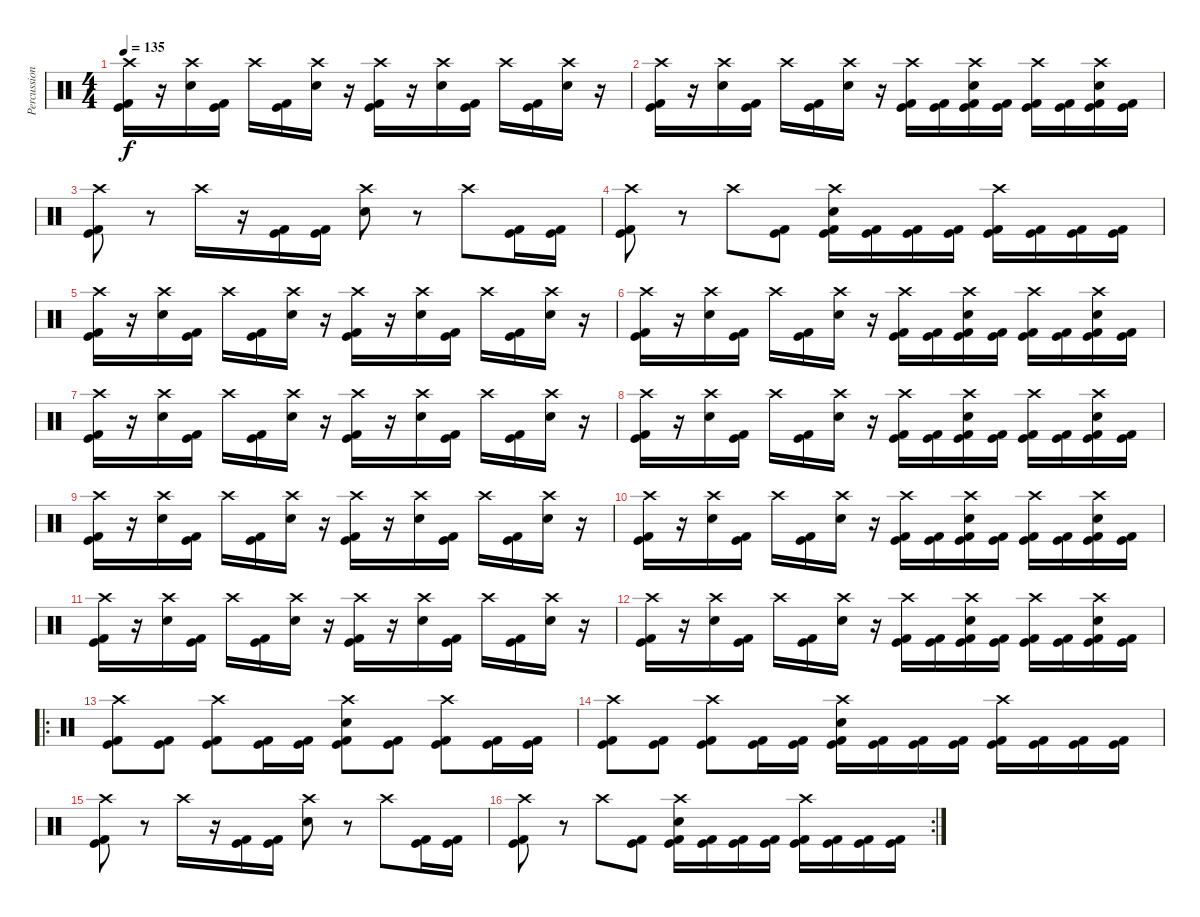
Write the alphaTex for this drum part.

\track ("Percussion" "Percussion") {instrument percussion}
\staff {score}
\articulation defaults
\ts (4 4)
\tempo 135
\clef neutral
\ks c
("Crash high (hit)" "Kick (hit)" "Kick (hit) 2").16{dy f} r.16 ("Crash high (hit)" "Electric Snare (hit)").16 ("Kick (hit) 2" "Kick (hit)").16 "Crash high (hit)".16 ("Kick (hit) 2" "Kick (hit)").16 ("Crash high (hit)" "Electric Snare (hit)").16 r.16 ("Crash high (hit)" "Kick (hit)" "Kick (hit) 2").16 r.16 ("Crash high (hit)" "Electric Snare (hit)").16 ("Kick (hit) 2" "Kick (hit)").16 "Crash high (hit)".16 ("Kick (hit) 2" "Kick (hit)").16 ("Crash high (hit)" "Electric Snare (hit)").16 r.16 |
("Crash high (hit)" "Kick (hit)" "Kick (hit) 2").16 r.16 ("Crash high (hit)" "Electric Snare (hit)").16 ("Kick (hit) 2" "Kick (hit)").16 "Crash high (hit)".16 ("Kick (hit) 2" "Kick (hit)").16 ("Crash high (hit)" "Electric Snare (hit)").16 r.16 ("Crash high (hit)" "Kick (hit) 2" "Kick (hit)").16 ("Kick (hit) 2" "Kick (hit)").16 ("Crash high (hit)" "Electric Snare (hit)" "Kick (hit) 2" "Kick (hit)").16 ("Kick (hit) 2" "Kick (hit)").16 ("Crash high (hit)" "Kick (hit) 2" "Kick (hit)").16 ("Kick (hit) 2" "Kick (hit)").16 ("Crash high (hit)" "Electric Snare (hit)" "Kick (hit) 2" "Kick (hit)").16 ("Kick (hit) 2" "Kick (hit)").16 |
("Crash high (hit)" "Kick (hit)" "Kick (hit) 2").8 r.8 "Crash high (hit)".16 r.16 ("Kick (hit)" "Kick (hit) 2").16 ("Kick (hit)" "Kick (hit) 2").16 ("Crash high (hit)" "Electric Snare (hit)").8 r.8 "Crash high (hit)".8 ("Kick (hit)" "Kick (hit) 2").16 ("Kick (hit)" "Kick (hit) 2").16 |
("Crash high (hit)" "Kick (hit)" "Kick (hit) 2").8 r.8 "Crash high (hit)".8 ("Kick (hit)" "Kick (hit) 2").8 ("Crash high (hit)" "Electric Snare (hit)" "Kick (hit)" "Kick (hit) 2").16 ("Kick (hit)" "Kick (hit) 2").16 ("Kick (hit)" "Kick (hit) 2").16 ("Kick (hit)" "Kick (hit) 2").16 ("Crash high (hit)" "Kick (hit)" "Kick (hit) 2").16 ("Kick (hit)" "Kick (hit) 2").16 ("Kick (hit)" "Kick (hit) 2").16 ("Kick (hit)" "Kick (hit) 2").16 |
("Crash high (hit)" "Kick (hit)" "Kick (hit) 2").16 r.16 ("Crash high (hit)" "Electric Snare (hit)").16 ("Kick (hit) 2" "Kick (hit)").16 "Crash high (hit)".16 ("Kick (hit) 2" "Kick (hit)").16 ("Crash high (hit)" "Electric Snare (hit)").16 r.16 ("Crash high (hit)" "Kick (hit)" "Kick (hit) 2").16 r.16 ("Crash high (hit)" "Electric Snare (hit)").16 ("Kick (hit) 2" "Kick (hit)").16 "Crash high (hit)".16 ("Kick (hit) 2" "Kick (hit)").16 ("Crash high (hit)" "Electric Snare (hit)").16 r.16 |
("Crash high (hit)" "Kick (hit)" "Kick (hit) 2").16 r.16 ("Crash high (hit)" "Electric Snare (hit)").16 ("Kick (hit) 2" "Kick (hit)").16 "Crash high (hit)".16 ("Kick (hit) 2" "Kick (hit)").16 ("Crash high (hit)" "Electric Snare (hit)").16 r.16 ("Crash high (hit)" "Kick (hit) 2" "Kick (hit)").16 ("Kick (hit) 2" "Kick (hit)").16 ("Crash high (hit)" "Electric Snare (hit)" "Kick (hit) 2" "Kick (hit)").16 ("Kick (hit) 2" "Kick (hit)").16 ("Crash high (hit)" "Kick (hit) 2" "Kick (hit)").16 ("Kick (hit) 2" "Kick (hit)").16 ("Crash high (hit)" "Electric Snare (hit)" "Kick (hit) 2" "Kick (hit)").16 ("Kick (hit) 2" "Kick (hit)").16 |
("Crash high (hit)" "Kick (hit)" "Kick (hit) 2").16 r.16 ("Crash high (hit)" "Electric Snare (hit)").16 ("Kick (hit) 2" "Kick (hit)").16 "Crash high (hit)".16 ("Kick (hit) 2" "Kick (hit)").16 ("Crash high (hit)" "Electric Snare (hit)").16 r.16 ("Crash high (hit)" "Kick (hit)" "Kick (hit) 2").16 r.16 ("Crash high (hit)" "Electric Snare (hit)").16 ("Kick (hit) 2" "Kick (hit)").16 "Crash high (hit)".16 ("Kick (hit) 2" "Kick (hit)").16 ("Crash high (hit)" "Electric Snare (hit)").16 r.16 |
("Crash high (hit)" "Kick (hit)" "Kick (hit) 2").16 r.16 ("Crash high (hit)" "Electric Snare (hit)").16 ("Kick (hit) 2" "Kick (hit)").16 "Crash high (hit)".16 ("Kick (hit) 2" "Kick (hit)").16 ("Crash high (hit)" "Electric Snare (hit)").16 r.16 ("Crash high (hit)" "Kick (hit) 2" "Kick (hit)").16 ("Kick (hit) 2" "Kick (hit)").16 ("Crash high (hit)" "Electric Snare (hit)" "Kick (hit) 2" "Kick (hit)").16 ("Kick (hit) 2" "Kick (hit)").16 ("Crash high (hit)" "Kick (hit) 2" "Kick (hit)").16 ("Kick (hit) 2" "Kick (hit)").16 ("Crash high (hit)" "Electric Snare (hit)" "Kick (hit) 2" "Kick (hit)").16 ("Kick (hit) 2" "Kick (hit)").16 |
("Crash high (hit)" "Kick (hit)" "Kick (hit) 2").16 r.16 ("Crash high (hit)" "Electric Snare (hit)").16 ("Kick (hit) 2" "Kick (hit)").16 "Crash high (hit)".16 ("Kick (hit) 2" "Kick (hit)").16 ("Crash high (hit)" "Electric Snare (hit)").16 r.16 ("Crash high (hit)" "Kick (hit)" "Kick (hit) 2").16 r.16 ("Crash high (hit)" "Electric Snare (hit)").16 ("Kick (hit) 2" "Kick (hit)").16 "Crash high (hit)".16 ("Kick (hit) 2" "Kick (hit)").16 ("Crash high (hit)" "Electric Snare (hit)").16 r.16 |
("Crash high (hit)" "Kick (hit)" "Kick (hit) 2").16 r.16 ("Crash high (hit)" "Electric Snare (hit)").16 ("Kick (hit) 2" "Kick (hit)").16 "Crash high (hit)".16 ("Kick (hit) 2" "Kick (hit)").16 ("Crash high (hit)" "Electric Snare (hit)").16 r.16 ("Crash high (hit)" "Kick (hit) 2" "Kick (hit)").16 ("Kick (hit) 2" "Kick (hit)").16 ("Crash high (hit)" "Electric Snare (hit)" "Kick (hit) 2" "Kick (hit)").16 ("Kick (hit) 2" "Kick (hit)").16 ("Crash high (hit)" "Kick (hit) 2" "Kick (hit)").16 ("Kick (hit) 2" "Kick (hit)").16 ("Crash high (hit)" "Electric Snare (hit)" "Kick (hit) 2" "Kick (hit)").16 ("Kick (hit) 2" "Kick (hit)").16 |
("Crash high (hit)" "Kick (hit)" "Kick (hit) 2").16 r.16 ("Crash high (hit)" "Electric Snare (hit)").16 ("Kick (hit) 2" "Kick (hit)").16 "Crash high (hit)".16 ("Kick (hit) 2" "Kick (hit)").16 ("Crash high (hit)" "Electric Snare (hit)").16 r.16 ("Crash high (hit)" "Kick (hit)" "Kick (hit) 2").16 r.16 ("Crash high (hit)" "Electric Snare (hit)").16 ("Kick (hit) 2" "Kick (hit)").16 "Crash high (hit)".16 ("Kick (hit) 2" "Kick (hit)").16 ("Crash high (hit)" "Electric Snare (hit)").16 r.16 |
("Crash high (hit)" "Kick (hit)" "Kick (hit) 2").16 r.16 ("Crash high (hit)" "Electric Snare (hit)").16 ("Kick (hit) 2" "Kick (hit)").16 "Crash high (hit)".16 ("Kick (hit) 2" "Kick (hit)").16 ("Crash high (hit)" "Electric Snare (hit)").16 r.16 ("Crash high (hit)" "Kick (hit) 2" "Kick (hit)").16 ("Kick (hit) 2" "Kick (hit)").16 ("Crash high (hit)" "Electric Snare (hit)" "Kick (hit) 2" "Kick (hit)").16 ("Kick (hit) 2" "Kick (hit)").16 ("Crash high (hit)" "Kick (hit) 2" "Kick (hit)").16 ("Kick (hit) 2" "Kick (hit)").16 ("Crash high (hit)" "Electric Snare (hit)" "Kick (hit) 2" "Kick (hit)").16 ("Kick (hit) 2" "Kick (hit)").16 |
\ro
("Crash high (hit)" "Kick (hit)" "Kick (hit) 2").8 ("Kick (hit)" "Kick (hit) 2").8 ("Crash high (hit)" "Kick (hit)" "Kick (hit) 2").8 ("Kick (hit)" "Kick (hit) 2").16 ("Kick (hit)" "Kick (hit) 2").16 ("Crash high (hit)" "Electric Snare (hit)" "Kick (hit)" "Kick (hit) 2").8 ("Kick (hit)" "Kick (hit) 2").8 ("Crash high (hit)" "Kick (hit)" "Kick (hit) 2").8 ("Kick (hit)" "Kick (hit) 2").16 ("Kick (hit)" "Kick (hit) 2").16 |
("Crash high (hit)" "Kick (hit)" "Kick (hit) 2").8 ("Kick (hit)" "Kick (hit) 2").8 ("Crash high (hit)" "Kick (hit)" "Kick (hit) 2").8 ("Kick (hit)" "Kick (hit) 2").16 ("Kick (hit)" "Kick (hit) 2").16 ("Crash high (hit)" "Electric Snare (hit)" "Kick (hit)" "Kick (hit) 2").16 ("Kick (hit)" "Kick (hit) 2").16 ("Kick (hit)" "Kick (hit) 2").16 ("Kick (hit)" "Kick (hit) 2").16 ("Crash high (hit)" "Kick (hit)" "Kick (hit) 2").16 ("Kick (hit)" "Kick (hit) 2").16 ("Kick (hit)" "Kick (hit) 2").16 ("Kick (hit)" "Kick (hit) 2").16 |
("Crash high (hit)" "Kick (hit)" "Kick (hit) 2").8 r.8 "Crash high (hit)".16 r.16 ("Kick (hit)" "Kick (hit) 2").16 ("Kick (hit)" "Kick (hit) 2").16 ("Crash high (hit)" "Electric Snare (hit)").8 r.8 "Crash high (hit)".8 ("Kick (hit)" "Kick (hit) 2").16 ("Kick (hit)" "Kick (hit) 2").16 |
\rc 2
("Crash high (hit)" "Kick (hit)" "Kick (hit) 2").8 r.8 "Crash high (hit)".8 ("Kick (hit)" "Kick (hit) 2").8 ("Crash high (hit)" "Electric Snare (hit)" "Kick (hit)" "Kick (hit) 2").16 ("Kick (hit)" "Kick (hit) 2").16 ("Kick (hit)" "Kick (hit) 2").16 ("Kick (hit)" "Kick (hit) 2").16 ("Crash high (hit)" "Kick (hit)" "Kick (hit) 2").16 ("Kick (hit)" "Kick (hit) 2").16 ("Kick (hit)" "Kick (hit) 2").16 ("Kick (hit)" "Kick (hit) 2").16
